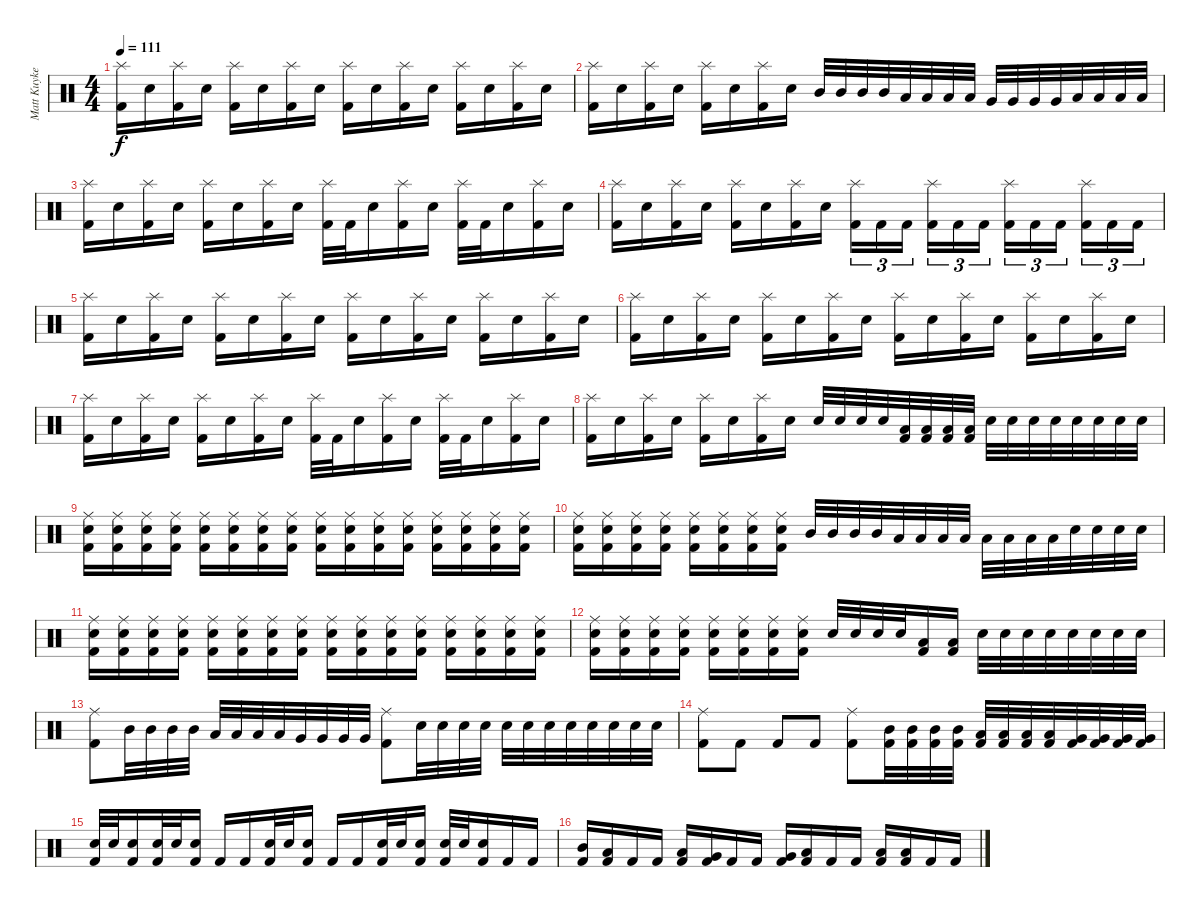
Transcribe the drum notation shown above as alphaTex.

\track ("Matt Kuykendall (Drums)" "Matt Kuyke") {instrument percussion}
\staff {score}
\articulation defaults
\ts (4 4)
\tempo 111
\clef neutral
\ks c
("Splash (hit)" "Kick (hit) 2").16{dy f} "Snare (hit) 2".16 ("Splash (hit)" "Kick (hit) 2").16 "Snare (hit) 2".16 ("Splash (hit)" "Kick (hit) 2").16 "Snare (hit) 2".16 ("Splash (hit)" "Kick (hit) 2").16 "Snare (hit) 2".16 ("Splash (hit)" "Kick (hit) 2").16 "Snare (hit) 2".16 ("Splash (hit)" "Kick (hit) 2").16 "Snare (hit) 2".16 ("Splash (hit)" "Kick (hit) 2").16 "Snare (hit) 2".16 ("Splash (hit)" "Kick (hit) 2").16 "Snare (hit) 2".16 |
("Splash (hit)" "Kick (hit) 2").16 "Snare (hit) 2".16 ("Splash (hit)" "Kick (hit) 2").16 "Snare (hit) 2".16 ("Splash (hit)" "Kick (hit) 2").16 "Snare (hit) 2".16 ("Splash (hit)" "Kick (hit) 2").16 "Snare (hit) 2".16 "Mid Tom (hit)".32 "Mid Tom (hit)".32 "Mid Tom (hit)".32 "Mid Tom (hit)".32 "Low Tom (hit)".32 "Low Tom (hit)".32 "Low Tom (hit)".32 "Low Tom (hit)".32 "Very Low Tom (hit)".32 "Very Low Tom (hit)".32 "Very Low Tom (hit)".32 "Very Low Tom (hit)".32 "Low Floor Tom (hit)".32 "Low Floor Tom (hit)".32 "Low Floor Tom (hit)".32 "Low Floor Tom (hit)".32 |
("Splash (hit)" "Kick (hit) 2").16 "Snare (hit) 2".16 ("Splash (hit)" "Kick (hit) 2").16 "Snare (hit) 2".16 ("Splash (hit)" "Kick (hit) 2").16 "Snare (hit) 2".16 ("Splash (hit)" "Kick (hit) 2").16 "Snare (hit) 2".16 ("Splash (hit)" "Kick (hit) 2").32 "Kick (hit) 2".32 "Snare (hit) 2".16 ("Splash (hit)" "Kick (hit) 2").16 "Snare (hit) 2".16 ("Splash (hit)" "Kick (hit) 2").32 "Kick (hit) 2".32 "Snare (hit) 2".16 ("Splash (hit)" "Kick (hit) 2").16 "Snare (hit) 2".16 |
("Splash (hit)" "Kick (hit) 2").16 "Snare (hit) 2".16 ("Splash (hit)" "Kick (hit) 2").16 "Snare (hit) 2".16 ("Splash (hit)" "Kick (hit) 2").16 "Snare (hit) 2".16 ("Splash (hit)" "Kick (hit) 2").16 "Snare (hit) 2".16 ("Splash (hit)" "Kick (hit) 2").16{tu (3 2)} "Kick (hit) 2".16{tu (3 2)} "Kick (hit) 2".16{tu (3 2) beam splitsecondary} ("Splash (hit)" "Kick (hit) 2").16{tu (3 2)} "Kick (hit) 2".16{tu (3 2)} "Kick (hit) 2".16{tu (3 2)} ("Splash (hit)" "Kick (hit) 2").16{tu (3 2)} "Kick (hit) 2".16{tu (3 2)} "Kick (hit) 2".16{tu (3 2) beam splitsecondary} ("Splash (hit)" "Kick (hit) 2").16{tu (3 2)} "Kick (hit) 2".16{tu (3 2)} "Kick (hit) 2".16{tu (3 2)} |
("Splash (hit)" "Kick (hit) 2").16 "Snare (hit) 2".16 ("Splash (hit)" "Kick (hit) 2").16 "Snare (hit) 2".16 ("Splash (hit)" "Kick (hit) 2").16 "Snare (hit) 2".16 ("Splash (hit)" "Kick (hit) 2").16 "Snare (hit) 2".16 ("Splash (hit)" "Kick (hit) 2").16 "Snare (hit) 2".16 ("Splash (hit)" "Kick (hit) 2").16 "Snare (hit) 2".16 ("Splash (hit)" "Kick (hit) 2").16 "Snare (hit) 2".16 ("Splash (hit)" "Kick (hit) 2").16 "Snare (hit) 2".16 |
("Splash (hit)" "Kick (hit) 2").16 "Snare (hit) 2".16 ("Splash (hit)" "Kick (hit) 2").16 "Snare (hit) 2".16 ("Splash (hit)" "Kick (hit) 2").16 "Snare (hit) 2".16 ("Splash (hit)" "Kick (hit) 2").16 "Snare (hit) 2".16 ("Splash (hit)" "Kick (hit) 2").16 "Snare (hit) 2".16 ("Splash (hit)" "Kick (hit) 2").16 "Snare (hit) 2".16 ("Splash (hit)" "Kick (hit) 2").16 "Snare (hit) 2".16 ("Splash (hit)" "Kick (hit) 2").16 "Snare (hit) 2".16 |
("Splash (hit)" "Kick (hit) 2").16 "Snare (hit) 2".16 ("Splash (hit)" "Kick (hit) 2").16 "Snare (hit) 2".16 ("Splash (hit)" "Kick (hit) 2").16 "Snare (hit) 2".16 ("Splash (hit)" "Kick (hit) 2").16 "Snare (hit) 2".16 ("Splash (hit)" "Kick (hit) 2").32 "Kick (hit) 2".32 "Snare (hit) 2".16 ("Splash (hit)" "Kick (hit) 2").16 "Snare (hit) 2".16 ("Splash (hit)" "Kick (hit) 2").32 "Kick (hit) 2".32 "Snare (hit) 2".16 ("Splash (hit)" "Kick (hit) 2").16 "Snare (hit) 2".16 |
("Splash (hit)" "Kick (hit) 2").16 "Snare (hit) 2".16 ("Splash (hit)" "Kick (hit) 2").16 "Snare (hit) 2".16 ("Splash (hit)" "Kick (hit) 2").16 "Snare (hit) 2".16 ("Splash (hit)" "Kick (hit) 2").16 "Snare (hit) 2".16 "Snare (hit) 2".32 "Snare (hit) 2".32 "Snare (hit) 2".32 "Snare (hit) 2".32 ("Low Floor Tom (hit)" "Kick (hit) 2").32 ("Low Floor Tom (hit)" "Kick (hit) 2").32 ("Low Floor Tom (hit)" "Kick (hit) 2").32 ("Low Floor Tom (hit)" "Kick (hit) 2").32 "Snare (hit) 2".32 "Snare (hit) 2".32 "Snare (hit) 2".32 "Snare (hit) 2".32 "Snare (hit) 2".32 "Snare (hit) 2".32 "Snare (hit) 2".32 "Snare (hit) 2".32 |
("Ride (middle)" "Snare (hit) 2" "Kick (hit) 2").16 ("Ride (middle)" "Snare (hit) 2" "Kick (hit) 2").16 ("Ride (middle)" "Snare (hit) 2" "Kick (hit) 2").16 ("Ride (middle)" "Snare (hit) 2" "Kick (hit) 2").16 ("Ride (middle)" "Snare (hit) 2" "Kick (hit) 2").16 ("Ride (middle)" "Snare (hit) 2" "Kick (hit) 2").16 ("Ride (middle)" "Snare (hit) 2" "Kick (hit) 2").16 ("Ride (middle)" "Snare (hit) 2" "Kick (hit) 2").16 ("Ride (middle)" "Snare (hit) 2" "Kick (hit) 2").16 ("Ride (middle)" "Snare (hit) 2" "Kick (hit) 2").16 ("Ride (middle)" "Snare (hit) 2" "Kick (hit) 2").16 ("Ride (middle)" "Snare (hit) 2" "Kick (hit) 2").16 ("Ride (middle)" "Snare (hit) 2" "Kick (hit) 2").16 ("Ride (middle)" "Snare (hit) 2" "Kick (hit) 2").16 ("Ride (middle)" "Snare (hit) 2" "Kick (hit) 2").16 ("Ride (middle)" "Snare (hit) 2" "Kick (hit) 2").16 |
("Ride (middle)" "Snare (hit) 2" "Kick (hit) 2").16 ("Ride (middle)" "Snare (hit) 2" "Kick (hit) 2").16 ("Ride (middle)" "Snare (hit) 2" "Kick (hit) 2").16 ("Ride (middle)" "Snare (hit) 2" "Kick (hit) 2").16 ("Ride (middle)" "Snare (hit) 2" "Kick (hit) 2").16 ("Ride (middle)" "Snare (hit) 2" "Kick (hit) 2").16 ("Ride (middle)" "Snare (hit) 2" "Kick (hit) 2").16 ("Ride (middle)" "Snare (hit) 2" "Kick (hit) 2").16 "Mid Tom (hit)".32 "Mid Tom (hit)".32 "Mid Tom (hit)".32 "Mid Tom (hit)".32 "Low Tom (hit)".32 "Low Tom (hit)".32 "Low Tom (hit)".32 "Low Tom (hit)".32 "Low Floor Tom (hit)".32 "Low Floor Tom (hit)".32 "Low Floor Tom (hit)".32 "Low Floor Tom (hit)".32 "Snare (hit) 2".32 "Snare (hit) 2".32 "Snare (hit) 2".32 "Snare (hit) 2".32 |
("Ride (middle)" "Snare (hit) 2" "Kick (hit) 2").16 ("Ride (middle)" "Snare (hit) 2" "Kick (hit) 2").16 ("Ride (middle)" "Snare (hit) 2" "Kick (hit) 2").16 ("Ride (middle)" "Snare (hit) 2" "Kick (hit) 2").16 ("Ride (middle)" "Snare (hit) 2" "Kick (hit) 2").16 ("Ride (middle)" "Snare (hit) 2" "Kick (hit) 2").16 ("Ride (middle)" "Snare (hit) 2" "Kick (hit) 2").16 ("Ride (middle)" "Snare (hit) 2" "Kick (hit) 2").16 ("Ride (middle)" "Snare (hit) 2" "Kick (hit) 2").16 ("Ride (middle)" "Snare (hit) 2" "Kick (hit) 2").16 ("Ride (middle)" "Snare (hit) 2" "Kick (hit) 2").16 ("Ride (middle)" "Snare (hit) 2" "Kick (hit) 2").16 ("Ride (middle)" "Snare (hit) 2" "Kick (hit) 2").16 ("Ride (middle)" "Snare (hit) 2" "Kick (hit) 2").16 ("Ride (middle)" "Snare (hit) 2" "Kick (hit) 2").16 ("Ride (middle)" "Snare (hit) 2" "Kick (hit) 2").16 |
("Ride (middle)" "Snare (hit) 2" "Kick (hit) 2").16 ("Ride (middle)" "Snare (hit) 2" "Kick (hit) 2").16 ("Ride (middle)" "Snare (hit) 2" "Kick (hit) 2").16 ("Ride (middle)" "Snare (hit) 2" "Kick (hit) 2").16 ("Ride (middle)" "Snare (hit) 2" "Kick (hit) 2").16 ("Ride (middle)" "Snare (hit) 2" "Kick (hit) 2").16 ("Ride (middle)" "Snare (hit) 2" "Kick (hit) 2").16 ("Ride (middle)" "Snare (hit) 2" "Kick (hit) 2").16 "Snare (hit) 2".32 "Snare (hit) 2".32 "Snare (hit) 2".32 "Snare (hit) 2".32 ("Low Floor Tom (hit)" "Kick (hit) 2").16 ("Low Floor Tom (hit)" "Kick (hit) 2").16 "Snare (hit) 2".32 "Snare (hit) 2".32 "Snare (hit) 2".32 "Snare (hit) 2".32 "Snare (hit) 2".32 "Snare (hit) 2".32 "Snare (hit) 2".32 "Snare (hit) 2".32 |
("Ride (middle)" "Kick (hit) 2").8 "Mid Tom (hit)".32 "Mid Tom (hit)".32 "Mid Tom (hit)".32 "Mid Tom (hit)".32 "Low Tom (hit)".32 "Low Tom (hit)".32 "Low Tom (hit)".32 "Low Tom (hit)".32 "Very Low Tom (hit)".32 "Very Low Tom (hit)".32 "Very Low Tom (hit)".32 "Very Low Tom (hit)".32 ("Ride (middle)" "Kick (hit) 2").8 "Snare (hit) 2".32 "Snare (hit) 2".32 "Snare (hit) 2".32 "Snare (hit) 2".32 "Snare (hit) 2".32 "Snare (hit) 2".32 "Snare (hit) 2".32 "Snare (hit) 2".32 "Snare (hit) 2".32 "Snare (hit) 2".32 "Snare (hit) 2".32 "Snare (hit) 2".32 |
("Ride (middle)" "Kick (hit) 2").8 "Kick (hit) 2".8 "Kick (hit) 2".8 "Kick (hit) 2".8 ("Ride (middle)" "Kick (hit) 2").8 ("Mid Tom (hit)" "Kick (hit) 2").32 ("Mid Tom (hit)" "Kick (hit) 2").32 ("Mid Tom (hit)" "Kick (hit) 2").32 ("Mid Tom (hit)" "Kick (hit) 2").32 ("Low Tom (hit)" "Kick (hit) 2").32 ("Low Tom (hit)" "Kick (hit) 2").32 ("Low Tom (hit)" "Kick (hit) 2").32 ("Low Tom (hit)" "Kick (hit) 2").32 ("Very Low Tom (hit)" "Kick (hit) 2").32 ("Very Low Tom (hit)" "Kick (hit) 2").32 ("Very Low Tom (hit)" "Kick (hit) 2").32 ("Very Low Tom (hit)" "Kick (hit) 2").32 |
("Snare (hit) 2" "Kick (hit) 2").32 "Snare (hit) 2".32 ("Snare (hit) 2" "Kick (hit) 2").16 ("Snare (hit) 2" "Kick (hit) 2").32 "Snare (hit) 2".32 ("Snare (hit) 2" "Kick (hit) 2").16 "Kick (hit) 2".16 "Kick (hit) 2".16 ("Snare (hit) 2" "Kick (hit) 2").32 "Snare (hit) 2".32 ("Snare (hit) 2" "Kick (hit) 2").16 "Kick (hit) 2".16 "Kick (hit) 2".16 ("Snare (hit) 2" "Kick (hit) 2").32 "Snare (hit) 2".32 ("Snare (hit) 2" "Kick (hit) 2").16 ("Snare (hit) 2" "Kick (hit) 2").32 "Snare (hit) 2".32 ("Snare (hit) 2" "Kick (hit) 2").16 "Kick (hit) 2".16 "Kick (hit) 2".16 |
("Mid Tom (hit)" "Kick (hit) 2").16 ("Low Tom (hit)" "Kick (hit) 2").16 "Kick (hit) 2".16 "Kick (hit) 2".16 ("Low Tom (hit)" "Kick (hit) 2").16 ("Very Low Tom (hit)" "Kick (hit) 2").16 "Kick (hit) 2".16 "Kick (hit) 2".16 ("Very Low Tom (hit)" "Kick (hit) 2").16 ("Low Floor Tom (hit)" "Kick (hit) 2").16 "Kick (hit) 2".16 "Kick (hit) 2".16 ("Low Floor Tom (hit)" "Kick (hit) 2").16 ("Low Floor Tom (hit)" "Kick (hit) 2").16 "Kick (hit) 2".16 "Kick (hit) 2".16
